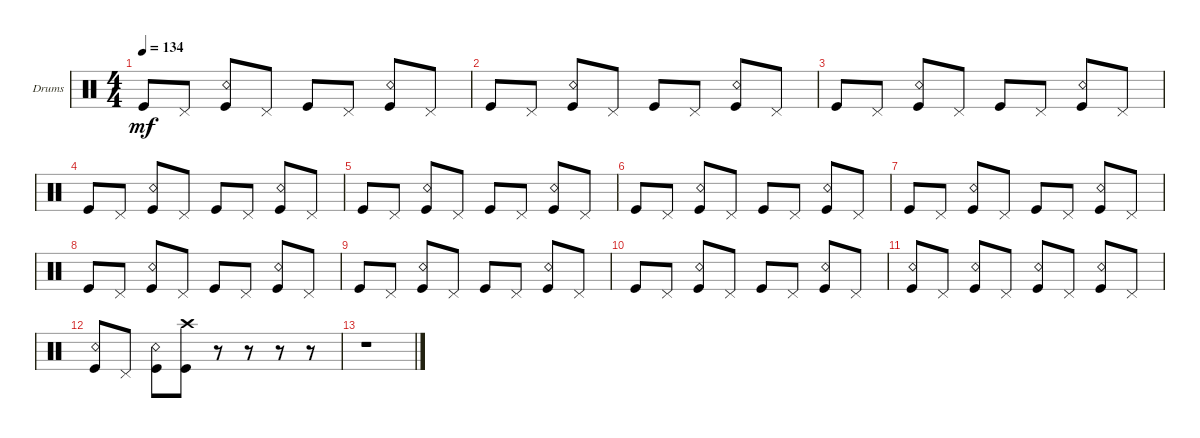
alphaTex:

\bracketExtendMode groupsimilarinstruments
\firstSystemTrackNameOrientation horizontal
\otherSystemsTrackNameOrientation horizontal
\track ("Nicky Bomba" "Drums") {instrument percussion}
\staff {score}
\articulation defaults
\ts (4 4)
\tempo 134
\clef neutral
\scale
0.333333
\ks c "Kick (hit)".8{dy mf} "Pedal Hi-Hat (hit)".8
("Kick (hit)" "Snare (rim shot)").8 "Pedal Hi-Hat (hit)".8 "Kick (hit)".8 "Pedal Hi-Hat (hit)".8 ("Kick (hit)" "Snare (rim shot)").8 "Pedal Hi-Hat (hit)".8 |
\scale
0.333333 "Kick (hit)".8 "Pedal Hi-Hat (hit)".8 ("Kick (hit)" "Snare (rim shot)").8 "Pedal Hi-Hat (hit)".8 "Kick (hit)".8 "Pedal Hi-Hat (hit)".8 ("Kick (hit)" "Snare (rim shot)").8 "Pedal Hi-Hat (hit)".8 |
\scale
0.333333 "Kick (hit)".8 "Pedal Hi-Hat (hit)".8 ("Kick (hit)" "Snare (rim shot)").8 "Pedal Hi-Hat (hit)".8 "Kick (hit)".8 "Pedal Hi-Hat (hit)".8 ("Kick (hit)" "Snare (rim shot)").8 "Pedal Hi-Hat (hit)".8 |
\scale
0.333333 "Kick (hit)".8 "Pedal Hi-Hat (hit)".8 ("Kick (hit)" "Snare (rim shot)").8 "Pedal Hi-Hat (hit)".8 "Kick (hit)".8 "Pedal Hi-Hat (hit)".8 ("Kick (hit)" "Snare (rim shot)").8 "Pedal Hi-Hat (hit)".8 |
\scale
0.333333 "Kick (hit)".8 "Pedal Hi-Hat (hit)".8 ("Kick (hit)" "Snare (rim shot)").8 "Pedal Hi-Hat (hit)".8 "Kick (hit)".8 "Pedal Hi-Hat (hit)".8 ("Kick (hit)" "Snare (rim shot)").8 "Pedal Hi-Hat (hit)".8 |
\scale
0.333333 "Kick (hit)".8 "Pedal Hi-Hat (hit)".8 ("Kick (hit)" "Snare (rim shot)").8 "Pedal Hi-Hat (hit)".8 "Kick (hit)".8 "Pedal Hi-Hat (hit)".8 ("Kick (hit)" "Snare (rim shot)").8 "Pedal Hi-Hat (hit)".8 |
\scale
0.333333 "Kick (hit)".8 "Pedal Hi-Hat (hit)".8 ("Kick (hit)" "Snare (rim shot)").8 "Pedal Hi-Hat (hit)".8 "Kick (hit)".8 "Pedal Hi-Hat (hit)".8 ("Kick (hit)" "Snare (rim shot)").8 "Pedal Hi-Hat (hit)".8 |
\scale
0.333333 "Kick (hit)".8 "Pedal Hi-Hat (hit)".8 ("Kick (hit)" "Snare (rim shot)").8 "Pedal Hi-Hat (hit)".8 "Kick (hit)".8 "Pedal Hi-Hat (hit)".8 ("Kick (hit)" "Snare (rim shot)").8 "Pedal Hi-Hat (hit)".8 |
\scale
0.333333 "Kick (hit)".8 "Pedal Hi-Hat (hit)".8 ("Kick (hit)" "Snare (rim shot)").8 "Pedal Hi-Hat (hit)".8 "Kick (hit)".8 "Pedal Hi-Hat (hit)".8 ("Kick (hit)" "Snare (rim shot)").8 "Pedal Hi-Hat (hit)".8 |
\scale
0.333333 "Kick (hit)".8 "Pedal Hi-Hat (hit)".8 ("Kick (hit)" "Snare (rim shot)").8 "Pedal Hi-Hat (hit)".8 "Kick (hit)".8 "Pedal Hi-Hat (hit)".8 ("Kick (hit)" "Snare (rim shot)").8 "Pedal Hi-Hat (hit)".8 |
\scale
0.333333 ("Kick (hit)" "Snare (rim shot)").8 "Pedal Hi-Hat (hit)".8 ("Kick (hit)" "Snare (rim shot)").8 "Pedal Hi-Hat (hit)".8 ("Kick (hit)" "Snare (rim shot)").8 "Pedal Hi-Hat (hit)".8 ("Kick (hit)" "Snare (rim shot)").8 "Pedal Hi-Hat (hit)".8 |
("Kick (hit)" "Snare (rim shot)").8 "Pedal Hi-Hat (hit)".8 ("Kick (hit)" "Snare (rim shot)").8 ("Kick (hit)" "Crash high (hit)").8 r.8 r.8 r.8 r.8 |
r.1
